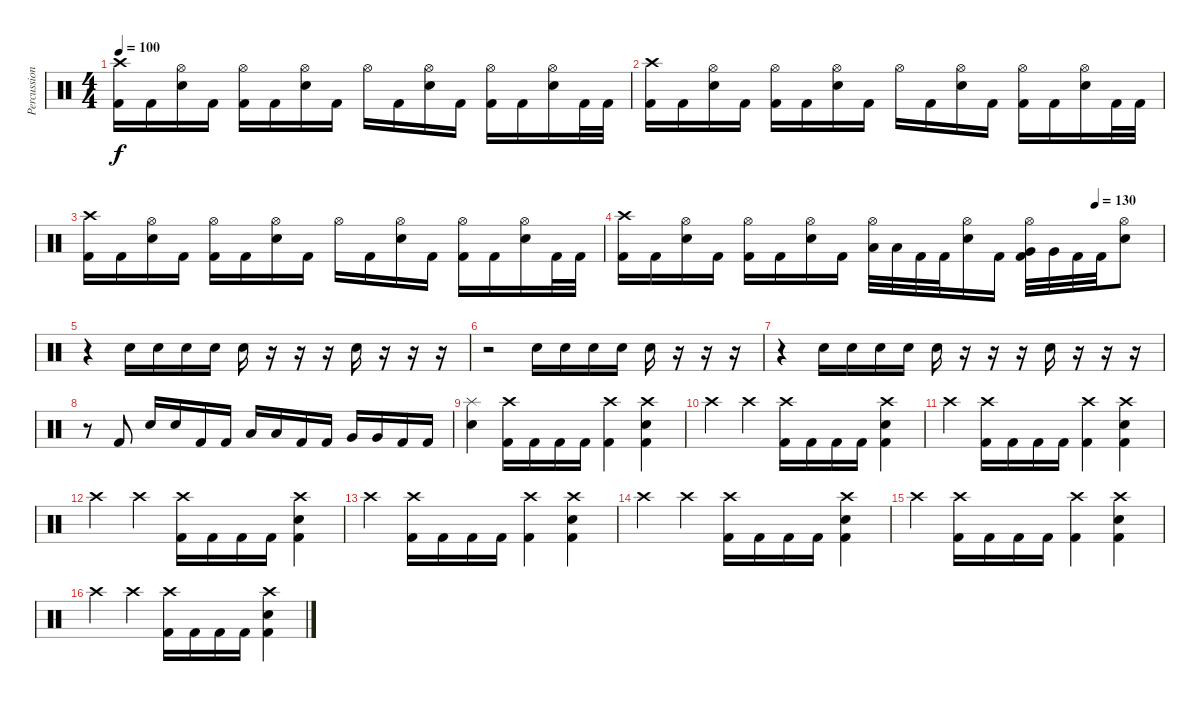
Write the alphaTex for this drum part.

\track ("Percussion" "Percussion") {instrument percussion}
\staff {score}
\articulation defaults
\ts (4 4)
\tempo 100
\clef neutral
\ks c
("Crash high (hit)" "Kick (hit) 2").16{dy f} "Kick (hit) 2".16 ("Hi-Hat (open)" "Electric Snare (hit)").16 "Kick (hit) 2".16 ("Hi-Hat (open)" "Kick (hit) 2").16 "Kick (hit) 2".16 ("Hi-Hat (open)" "Electric Snare (hit)").16 "Kick (hit) 2".16 "Hi-Hat (open)".16 "Kick (hit) 2".16 ("Hi-Hat (open)" "Electric Snare (hit)").16 "Kick (hit) 2".16 ("Hi-Hat (open)" "Kick (hit) 2").16 "Kick (hit) 2".16 ("Hi-Hat (open)" "Electric Snare (hit)").16 "Kick (hit) 2".32 "Kick (hit) 2".32 |
("Crash high (hit)" "Kick (hit) 2").16 "Kick (hit) 2".16 ("Hi-Hat (open)" "Electric Snare (hit)").16 "Kick (hit) 2".16 ("Hi-Hat (open)" "Kick (hit) 2").16 "Kick (hit) 2".16 ("Hi-Hat (open)" "Electric Snare (hit)").16 "Kick (hit) 2".16 "Hi-Hat (open)".16 "Kick (hit) 2".16 ("Hi-Hat (open)" "Electric Snare (hit)").16 "Kick (hit) 2".16 ("Hi-Hat (open)" "Kick (hit) 2").16 "Kick (hit) 2".16 ("Hi-Hat (open)" "Electric Snare (hit)").16 "Kick (hit) 2".32 "Kick (hit) 2".32 |
("Crash high (hit)" "Kick (hit) 2").16 "Kick (hit) 2".16 ("Hi-Hat (open)" "Electric Snare (hit)").16 "Kick (hit) 2".16 ("Hi-Hat (open)" "Kick (hit) 2").16 "Kick (hit) 2".16 ("Hi-Hat (open)" "Electric Snare (hit)").16 "Kick (hit) 2".16 "Hi-Hat (open)".16 "Kick (hit) 2".16 ("Hi-Hat (open)" "Electric Snare (hit)").16 "Kick (hit) 2".16 ("Hi-Hat (open)" "Kick (hit) 2").16 "Kick (hit) 2".16 ("Hi-Hat (open)" "Electric Snare (hit)").16 "Kick (hit) 2".32 "Kick (hit) 2".32 |
\tempo (130 0.875)
("Crash high (hit)" "Kick (hit) 2").16 "Kick (hit) 2".16 ("Hi-Hat (open)" "Electric Snare (hit)").16 "Kick (hit) 2".16 ("Hi-Hat (open)" "Kick (hit) 2").16 "Kick (hit) 2".16 ("Hi-Hat (open)" "Electric Snare (hit)").16 "Kick (hit) 2".16 ("Hi-Hat (open)" "Low Tom (hit)").32 "Low Tom (hit)".32 "Kick (hit) 2".32 "Kick (hit) 2".32 ("Hi-Hat (open)" "Electric Snare (hit)").16 "Kick (hit) 2".16 ("Hi-Hat (open)" "Very Low Tom (hit)" "Kick (hit) 2").32 "Very Low Tom (hit)".32 "Kick (hit) 2".32 "Kick (hit) 2".32 ("Hi-Hat (open)" "Electric Snare (hit)").8 |
r.4 "Electric Snare (hit)".16 "Electric Snare (hit)".16 "Electric Snare (hit)".16 "Electric Snare (hit)".16 "Electric Snare (hit)".16 r.16 r.16 r.16 "Electric Snare (hit)".16 r.16 r.16 r.16 |
r.2 "Electric Snare (hit)".16 "Electric Snare (hit)".16 "Electric Snare (hit)".16 "Electric Snare (hit)".16 "Electric Snare (hit)".16 r.16 r.16 r.16 |
r.4 "Electric Snare (hit)".16 "Electric Snare (hit)".16 "Electric Snare (hit)".16 "Electric Snare (hit)".16 "Electric Snare (hit)".16 r.16 r.16 r.16 "Electric Snare (hit)".16 r.16 r.16 r.16 |
r.8 "Kick (hit) 2".8 "Electric Snare (hit)".16 "Electric Snare (hit)".16 "Kick (hit) 2".16 "Kick (hit) 2".16 "Low Tom (hit)".16 "Low Tom (hit)".16 "Kick (hit) 2".16 "Kick (hit) 2".16 "Very Low Tom (hit)".16 "Very Low Tom (hit)".16 "Kick (hit) 2".16 "Kick (hit) 2".16 |
("Splash (hit)" "Electric Snare (hit)").4 ("Crash high (hit)" "Kick (hit) 2").16 "Kick (hit) 2".16 "Kick (hit) 2".16 "Kick (hit) 2".16 ("Crash high (hit)" "Kick (hit) 2").4 ("Crash high (hit)" "Electric Snare (hit)" "Kick (hit) 2").4 |
"Crash high (hit)".4 "Crash high (hit)".4 ("Crash high (hit)" "Kick (hit) 2").16 "Kick (hit) 2".16 "Kick (hit) 2".16 "Kick (hit) 2".16 ("Crash high (hit)" "Electric Snare (hit)" "Kick (hit) 2").4 |
"Crash high (hit)".4 ("Crash high (hit)" "Kick (hit) 2").16 "Kick (hit) 2".16 "Kick (hit) 2".16 "Kick (hit) 2".16 ("Crash high (hit)" "Kick (hit) 2").4 ("Crash high (hit)" "Electric Snare (hit)" "Kick (hit) 2").4 |
"Crash high (hit)".4 "Crash high (hit)".4 ("Crash high (hit)" "Kick (hit) 2").16 "Kick (hit) 2".16 "Kick (hit) 2".16 "Kick (hit) 2".16 ("Crash high (hit)" "Electric Snare (hit)" "Kick (hit) 2").4 |
"Crash high (hit)".4 ("Crash high (hit)" "Kick (hit) 2").16 "Kick (hit) 2".16 "Kick (hit) 2".16 "Kick (hit) 2".16 ("Crash high (hit)" "Kick (hit) 2").4 ("Crash high (hit)" "Electric Snare (hit)" "Kick (hit) 2").4 |
"Crash high (hit)".4 "Crash high (hit)".4 ("Crash high (hit)" "Kick (hit) 2").16 "Kick (hit) 2".16 "Kick (hit) 2".16 "Kick (hit) 2".16 ("Crash high (hit)" "Electric Snare (hit)" "Kick (hit) 2").4 |
"Crash high (hit)".4 ("Crash high (hit)" "Kick (hit) 2").16 "Kick (hit) 2".16 "Kick (hit) 2".16 "Kick (hit) 2".16 ("Crash high (hit)" "Kick (hit) 2").4 ("Crash high (hit)" "Electric Snare (hit)" "Kick (hit) 2").4 |
"Crash high (hit)".4 "Crash high (hit)".4 ("Crash high (hit)" "Kick (hit) 2").16 "Kick (hit) 2".16 "Kick (hit) 2".16 "Kick (hit) 2".16 ("Crash high (hit)" "Electric Snare (hit)" "Kick (hit) 2").4
